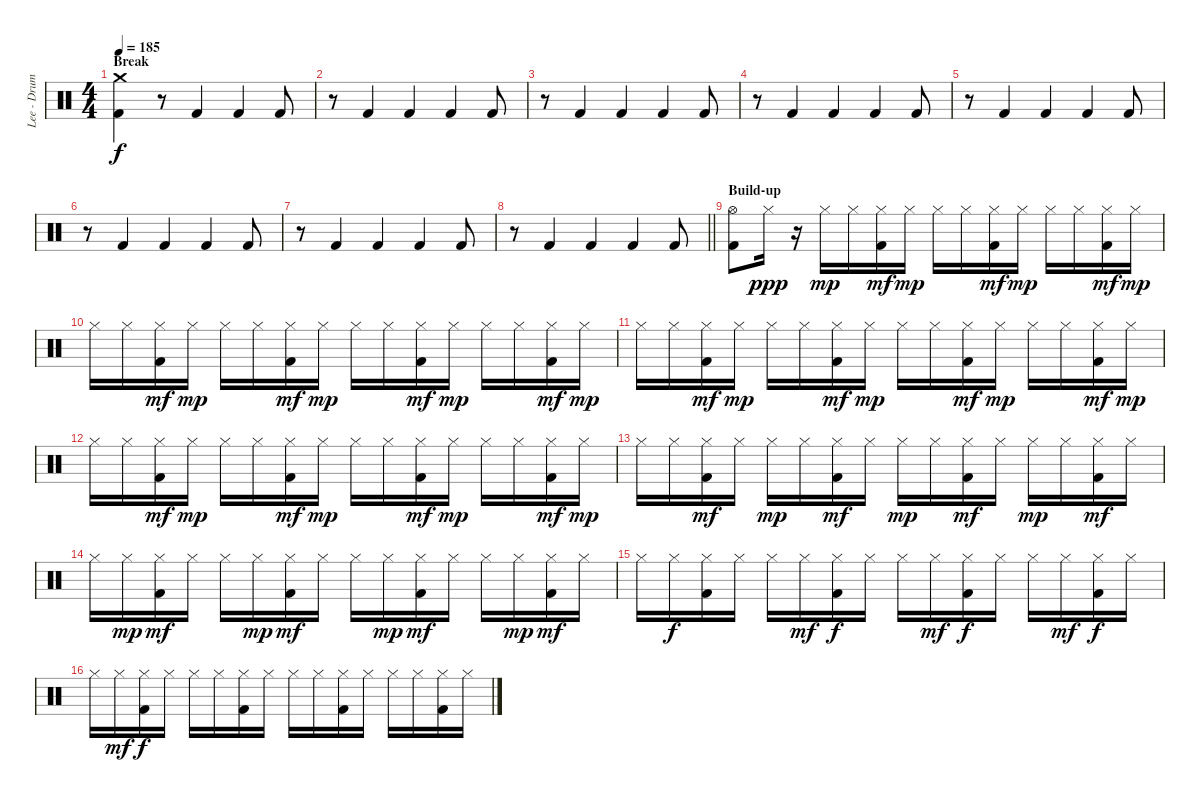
\track ("Lee - Drums" "Lee - Drum") {instrument percussion}
\staff {score}
\articulation defaults
\ts (4 4)
\section ("" "Break")
\tempo 185
\clef neutral
\ks c
("Crash medium (hit)" "Kick (hit) 2").4{dy f} r.8 "Kick (hit) 2".4 "Kick (hit) 2".4 "Kick (hit) 2".8 |
r.8 "Kick (hit) 2".4 "Kick (hit) 2".4 "Kick (hit) 2".4 "Kick (hit) 2".8 |
r.8 "Kick (hit) 2".4 "Kick (hit) 2".4 "Kick (hit) 2".4 "Kick (hit) 2".8 |
r.8 "Kick (hit) 2".4 "Kick (hit) 2".4 "Kick (hit) 2".4 "Kick (hit) 2".8 |
r.8 "Kick (hit) 2".4 "Kick (hit) 2".4 "Kick (hit) 2".4 "Kick (hit) 2".8 |
r.8 "Kick (hit) 2".4 "Kick (hit) 2".4 "Kick (hit) 2".4 "Kick (hit) 2".8 |
r.8 "Kick (hit) 2".4 "Kick (hit) 2".4 "Kick (hit) 2".4 "Kick (hit) 2".8 |
\barLineRight lightlight
r.8 "Kick (hit) 2".4 "Kick (hit) 2".4 "Kick (hit) 2".4 "Kick (hit) 2".8 |
\section ("" "Build-up")
("Hi-Hat (open)" "Kick (hit) 2").8 "Hi-Hat (closed)".16{dy ppp} r.16 "Hi-Hat (closed)".16{dy mp} "Hi-Hat (closed)".16 ("Hi-Hat (closed)" "Kick (hit) 2").16{dy mf} "Hi-Hat (closed)".16{dy mp} "Hi-Hat (closed)".16 "Hi-Hat (closed)".16 ("Hi-Hat (closed)" "Kick (hit) 2").16{dy mf} "Hi-Hat (closed)".16{dy mp} "Hi-Hat (closed)".16 "Hi-Hat (closed)".16 ("Hi-Hat (closed)" "Kick (hit) 2").16{dy mf} "Hi-Hat (closed)".16{dy mp} |
"Hi-Hat (closed)".16 "Hi-Hat (closed)".16 ("Hi-Hat (closed)" "Kick (hit) 2").16{dy mf} "Hi-Hat (closed)".16{dy mp} "Hi-Hat (closed)".16 "Hi-Hat (closed)".16 ("Hi-Hat (closed)" "Kick (hit) 2").16{dy mf} "Hi-Hat (closed)".16{dy mp} "Hi-Hat (closed)".16 "Hi-Hat (closed)".16 ("Hi-Hat (closed)" "Kick (hit) 2").16{dy mf} "Hi-Hat (closed)".16{dy mp} "Hi-Hat (closed)".16 "Hi-Hat (closed)".16 ("Hi-Hat (closed)" "Kick (hit) 2").16{dy mf} "Hi-Hat (closed)".16{dy mp} |
"Hi-Hat (closed)".16 "Hi-Hat (closed)".16 ("Hi-Hat (closed)" "Kick (hit) 2").16{dy mf} "Hi-Hat (closed)".16{dy mp} "Hi-Hat (closed)".16 "Hi-Hat (closed)".16 ("Hi-Hat (closed)" "Kick (hit) 2").16{dy mf} "Hi-Hat (closed)".16{dy mp} "Hi-Hat (closed)".16 "Hi-Hat (closed)".16 ("Hi-Hat (closed)" "Kick (hit) 2").16{dy mf} "Hi-Hat (closed)".16{dy mp} "Hi-Hat (closed)".16 "Hi-Hat (closed)".16 ("Hi-Hat (closed)" "Kick (hit) 2").16{dy mf} "Hi-Hat (closed)".16{dy mp} |
"Hi-Hat (closed)".16 "Hi-Hat (closed)".16 ("Hi-Hat (closed)" "Kick (hit) 2").16{dy mf} "Hi-Hat (closed)".16{dy mp} "Hi-Hat (closed)".16 "Hi-Hat (closed)".16 ("Hi-Hat (closed)" "Kick (hit) 2").16{dy mf} "Hi-Hat (closed)".16{dy mp} "Hi-Hat (closed)".16 "Hi-Hat (closed)".16 ("Hi-Hat (closed)" "Kick (hit) 2").16{dy mf} "Hi-Hat (closed)".16{dy mp} "Hi-Hat (closed)".16 "Hi-Hat (closed)".16 ("Hi-Hat (closed)" "Kick (hit) 2").16{dy mf} "Hi-Hat (closed)".16{dy mp} |
"Hi-Hat (closed)".16 "Hi-Hat (closed)".16 ("Hi-Hat (closed)" "Kick (hit) 2").16{dy mf} "Hi-Hat (closed)".16 "Hi-Hat (closed)".16{dy mp} "Hi-Hat (closed)".16 ("Hi-Hat (closed)" "Kick (hit) 2").16{dy mf} "Hi-Hat (closed)".16 "Hi-Hat (closed)".16{dy mp} "Hi-Hat (closed)".16 ("Hi-Hat (closed)" "Kick (hit) 2").16{dy mf} "Hi-Hat (closed)".16 "Hi-Hat (closed)".16{dy mp} "Hi-Hat (closed)".16 ("Hi-Hat (closed)" "Kick (hit) 2").16{dy mf} "Hi-Hat (closed)".16 |
"Hi-Hat (closed)".16 "Hi-Hat (closed)".16{dy mp} ("Hi-Hat (closed)" "Kick (hit) 2").16{dy mf} "Hi-Hat (closed)".16 "Hi-Hat (closed)".16 "Hi-Hat (closed)".16{dy mp} ("Hi-Hat (closed)" "Kick (hit) 2").16{dy mf} "Hi-Hat (closed)".16 "Hi-Hat (closed)".16 "Hi-Hat (closed)".16{dy mp} ("Hi-Hat (closed)" "Kick (hit) 2").16{dy mf} "Hi-Hat (closed)".16 "Hi-Hat (closed)".16 "Hi-Hat (closed)".16{dy mp} ("Hi-Hat (closed)" "Kick (hit) 2").16{dy mf} "Hi-Hat (closed)".16 |
"Hi-Hat (closed)".16 "Hi-Hat (closed)".16{dy f} ("Hi-Hat (closed)" "Kick (hit) 2").16 "Hi-Hat (closed)".16 "Hi-Hat (closed)".16 "Hi-Hat (closed)".16{dy mf} ("Hi-Hat (closed)" "Kick (hit) 2").16{dy f} "Hi-Hat (closed)".16 "Hi-Hat (closed)".16 "Hi-Hat (closed)".16{dy mf} ("Hi-Hat (closed)" "Kick (hit) 2").16{dy f} "Hi-Hat (closed)".16 "Hi-Hat (closed)".16 "Hi-Hat (closed)".16{dy mf} ("Hi-Hat (closed)" "Kick (hit) 2").16{dy f} "Hi-Hat (closed)".16 |
"Hi-Hat (closed)".16 "Hi-Hat (closed)".16{dy mf} ("Hi-Hat (closed)" "Kick (hit) 2").16{dy f} "Hi-Hat (closed)".16 "Hi-Hat (closed)".16 "Hi-Hat (closed)".16 ("Hi-Hat (closed)" "Kick (hit) 2").16 "Hi-Hat (closed)".16 "Hi-Hat (closed)".16 "Hi-Hat (closed)".16 ("Hi-Hat (closed)" "Kick (hit) 2").16 "Hi-Hat (closed)".16 "Hi-Hat (closed)".16 "Hi-Hat (closed)".16 ("Hi-Hat (closed)" "Kick (hit) 2").16 "Hi-Hat (closed)".16
